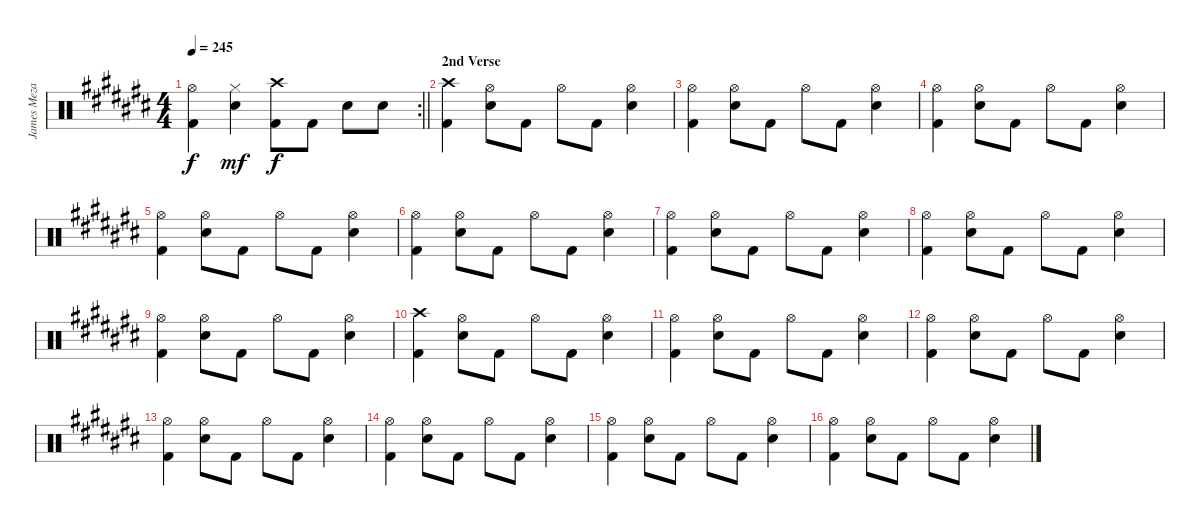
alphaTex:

\track ("James Meza" "James Meza") {instrument percussion}
\staff {score}
\articulation defaults
\rc 2
\ts (4 4)
\tempo 245
\clef neutral
\barLineRight lightlight
\ks c#
("Hi-Hat (open)" "Kick (hit) 2").4{dy f} ("Hi-Hat (closed)" "Snare (hit) 2").4{dy mf volume 16} ("Crash high (hit)" "Kick (hit) 2").8{dy f volume 13} "Kick (hit) 2".8 "Snare (hit) 2".8 "Snare (hit) 2".8 |
\section ("" "2nd Verse")
("Crash high (hit)" "Kick (hit) 2").4 ("Hi-Hat (open)" "Snare (hit) 2").8 "Kick (hit) 2".8 "Hi-Hat (open)".8 "Kick (hit) 2".8 ("Hi-Hat (open)" "Snare (hit) 2").4 |
("Hi-Hat (open)" "Kick (hit) 2").4 ("Hi-Hat (open)" "Snare (hit) 2").8 "Kick (hit) 2".8 "Hi-Hat (open)".8 "Kick (hit) 2".8 ("Hi-Hat (open)" "Snare (hit) 2").4 |
("Hi-Hat (open)" "Kick (hit) 2").4 ("Hi-Hat (open)" "Snare (hit) 2").8 "Kick (hit) 2".8 "Hi-Hat (open)".8 "Kick (hit) 2".8 ("Hi-Hat (open)" "Snare (hit) 2").4 |
("Hi-Hat (open)" "Kick (hit) 2").4 ("Hi-Hat (open)" "Snare (hit) 2").8 "Kick (hit) 2".8 "Hi-Hat (open)".8 "Kick (hit) 2".8 ("Hi-Hat (open)" "Snare (hit) 2").4 |
("Hi-Hat (open)" "Kick (hit) 2").4 ("Hi-Hat (open)" "Snare (hit) 2").8 "Kick (hit) 2".8 "Hi-Hat (open)".8 "Kick (hit) 2".8 ("Hi-Hat (open)" "Snare (hit) 2").4 |
("Hi-Hat (open)" "Kick (hit) 2").4 ("Hi-Hat (open)" "Snare (hit) 2").8 "Kick (hit) 2".8 "Hi-Hat (open)".8 "Kick (hit) 2".8 ("Hi-Hat (open)" "Snare (hit) 2").4 |
("Hi-Hat (open)" "Kick (hit) 2").4 ("Hi-Hat (open)" "Snare (hit) 2").8 "Kick (hit) 2".8 "Hi-Hat (open)".8 "Kick (hit) 2".8 ("Hi-Hat (open)" "Snare (hit) 2").4 |
("Hi-Hat (open)" "Kick (hit) 2").4 ("Hi-Hat (open)" "Snare (hit) 2").8 "Kick (hit) 2".8 "Hi-Hat (open)".8 "Kick (hit) 2".8 ("Hi-Hat (open)" "Snare (hit) 2").4 |
("Crash high (hit)" "Kick (hit) 2").4 ("Hi-Hat (open)" "Snare (hit) 2").8 "Kick (hit) 2".8 "Hi-Hat (open)".8 "Kick (hit) 2".8 ("Hi-Hat (open)" "Snare (hit) 2").4 |
("Hi-Hat (open)" "Kick (hit) 2").4 ("Hi-Hat (open)" "Snare (hit) 2").8 "Kick (hit) 2".8 "Hi-Hat (open)".8 "Kick (hit) 2".8 ("Hi-Hat (open)" "Snare (hit) 2").4 |
("Hi-Hat (open)" "Kick (hit) 2").4 ("Hi-Hat (open)" "Snare (hit) 2").8 "Kick (hit) 2".8 "Hi-Hat (open)".8 "Kick (hit) 2".8 ("Hi-Hat (open)" "Snare (hit) 2").4 |
("Hi-Hat (open)" "Kick (hit) 2").4 ("Hi-Hat (open)" "Snare (hit) 2").8 "Kick (hit) 2".8 "Hi-Hat (open)".8 "Kick (hit) 2".8 ("Hi-Hat (open)" "Snare (hit) 2").4 |
("Hi-Hat (open)" "Kick (hit) 2").4 ("Hi-Hat (open)" "Snare (hit) 2").8 "Kick (hit) 2".8 "Hi-Hat (open)".8 "Kick (hit) 2".8 ("Hi-Hat (open)" "Snare (hit) 2").4 |
("Hi-Hat (open)" "Kick (hit) 2").4 ("Hi-Hat (open)" "Snare (hit) 2").8 "Kick (hit) 2".8 "Hi-Hat (open)".8 "Kick (hit) 2".8 ("Hi-Hat (open)" "Snare (hit) 2").4 |
("Hi-Hat (open)" "Kick (hit) 2").4 ("Hi-Hat (open)" "Snare (hit) 2").8 "Kick (hit) 2".8 "Hi-Hat (open)".8 "Kick (hit) 2".8 ("Hi-Hat (open)" "Snare (hit) 2").4
